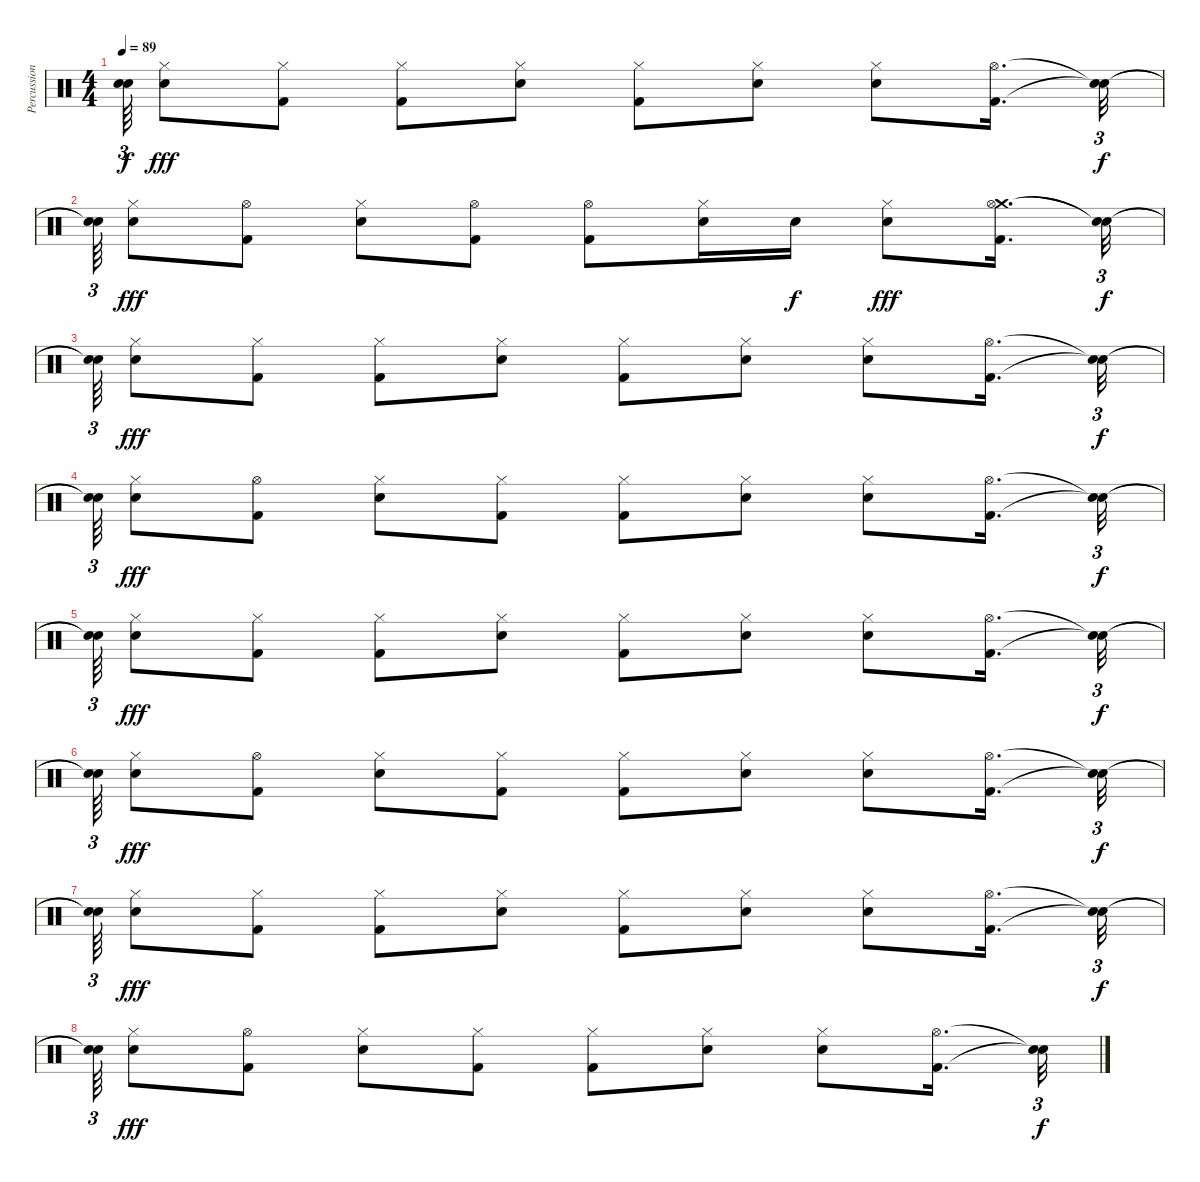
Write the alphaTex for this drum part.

\track ("Percussioni" "Percussion") {instrument percussion}
\staff {score}
\articulation defaults
\ts (4 4)
\tempo 89
\clef neutral
\ks c
("Snare (hit)"{t} "Snare (hit)"{t}).64{tu (3 2) dy f} ("Hi-Hat (closed)" "Snare (hit) 2").8{dy fff} ("Hi-Hat (closed)" "Kick (hit) 2").8 ("Hi-Hat (closed)" "Kick (hit) 2").8 ("Hi-Hat (closed)" "Snare (hit) 2").8 ("Hi-Hat (closed)" "Kick (hit) 2").8 ("Hi-Hat (closed)" "Snare (hit) 2").8 ("Hi-Hat (closed)" "Snare (hit) 2").8 ("Hi-Hat (open)" "Kick (hit) 2").16{d} ("Snare (hit)"{t} "Snare (hit)"{t}).32{tu (3 2) dy f} |
("Snare (hit)"{t} "Snare (hit)"{t}).64{tu (3 2)} ("Hi-Hat (closed)" "Snare (hit) 2").8{dy fff} ("Hi-Hat (open)" "Kick (hit) 2").8 ("Hi-Hat (closed)" "Snare (hit) 2").8 ("Hi-Hat (open)" "Kick (hit) 2").8 ("Hi-Hat (open)" "Kick (hit) 2").8 ("Hi-Hat (closed)" "Snare (hit) 2").16 "Snare (hit) 2".16{dy f} ("Hi-Hat (closed)" "Snare (hit) 2").8{dy fff} ("Crash medium (hit)" "Hi-Hat (open)" "Kick (hit) 2").16{d} ("Snare (hit)"{t} "Snare (hit)"{t}).32{tu (3 2) dy f} |
("Snare (hit)"{t} "Snare (hit)"{t}).64{tu (3 2)} ("Hi-Hat (closed)" "Snare (hit) 2").8{dy fff} ("Hi-Hat (closed)" "Kick (hit) 2").8 ("Hi-Hat (closed)" "Kick (hit) 2").8 ("Hi-Hat (closed)" "Snare (hit) 2").8 ("Hi-Hat (closed)" "Kick (hit) 2").8 ("Hi-Hat (closed)" "Snare (hit) 2").8 ("Hi-Hat (closed)" "Snare (hit) 2").8 ("Hi-Hat (open)" "Kick (hit) 2").16{d} ("Snare (hit)"{t} "Snare (hit)"{t}).32{tu (3 2) dy f} |
("Snare (hit)"{t} "Snare (hit)"{t}).64{tu (3 2)} ("Hi-Hat (closed)" "Snare (hit) 2").8{dy fff} ("Hi-Hat (open)" "Kick (hit) 2").8 ("Hi-Hat (closed)" "Snare (hit) 2").8 ("Hi-Hat (closed)" "Kick (hit) 2").8 ("Hi-Hat (closed)" "Kick (hit) 2").8 ("Hi-Hat (closed)" "Snare (hit) 2").8 ("Hi-Hat (closed)" "Snare (hit) 2").8 ("Hi-Hat (open)" "Kick (hit) 2").16{d} ("Snare (hit)"{t} "Snare (hit)"{t}).32{tu (3 2) dy f} |
("Snare (hit)"{t} "Snare (hit)"{t}).64{tu (3 2)} ("Hi-Hat (closed)" "Snare (hit) 2").8{dy fff} ("Hi-Hat (closed)" "Kick (hit) 2").8 ("Hi-Hat (closed)" "Kick (hit) 2").8 ("Hi-Hat (closed)" "Snare (hit) 2").8 ("Hi-Hat (closed)" "Kick (hit) 2").8 ("Hi-Hat (closed)" "Snare (hit) 2").8 ("Hi-Hat (closed)" "Snare (hit) 2").8 ("Hi-Hat (open)" "Kick (hit) 2").16{d} ("Snare (hit)"{t} "Snare (hit)"{t}).32{tu (3 2) dy f} |
("Snare (hit)"{t} "Snare (hit)"{t}).64{tu (3 2)} ("Hi-Hat (closed)" "Snare (hit) 2").8{dy fff} ("Hi-Hat (open)" "Kick (hit) 2").8 ("Hi-Hat (closed)" "Snare (hit) 2").8 ("Hi-Hat (closed)" "Kick (hit) 2").8 ("Hi-Hat (closed)" "Kick (hit) 2").8 ("Hi-Hat (closed)" "Snare (hit) 2").8 ("Hi-Hat (closed)" "Snare (hit) 2").8 ("Hi-Hat (open)" "Kick (hit) 2").16{d} ("Snare (hit)"{t} "Snare (hit)"{t}).32{tu (3 2) dy f} |
("Snare (hit)"{t} "Snare (hit)"{t}).64{tu (3 2)} ("Hi-Hat (closed)" "Snare (hit) 2").8{dy fff} ("Hi-Hat (closed)" "Kick (hit) 2").8 ("Hi-Hat (closed)" "Kick (hit) 2").8 ("Hi-Hat (closed)" "Snare (hit) 2").8 ("Hi-Hat (closed)" "Kick (hit) 2").8 ("Hi-Hat (closed)" "Snare (hit) 2").8 ("Hi-Hat (closed)" "Snare (hit) 2").8 ("Hi-Hat (open)" "Kick (hit) 2").16{d} ("Snare (hit)"{t} "Snare (hit)"{t}).32{tu (3 2) dy f} |
("Snare (hit)"{t} "Snare (hit)"{t}).64{tu (3 2)} ("Hi-Hat (closed)" "Snare (hit) 2").8{dy fff} ("Hi-Hat (open)" "Kick (hit) 2").8 ("Hi-Hat (closed)" "Snare (hit) 2").8 ("Hi-Hat (closed)" "Kick (hit) 2").8 ("Hi-Hat (closed)" "Kick (hit) 2").8 ("Hi-Hat (closed)" "Snare (hit) 2").8 ("Hi-Hat (closed)" "Snare (hit) 2").8 ("Hi-Hat (open)" "Kick (hit) 2").16{d} ("Snare (hit)"{t} "Snare (hit)"{t}).32{tu (3 2) dy f}
